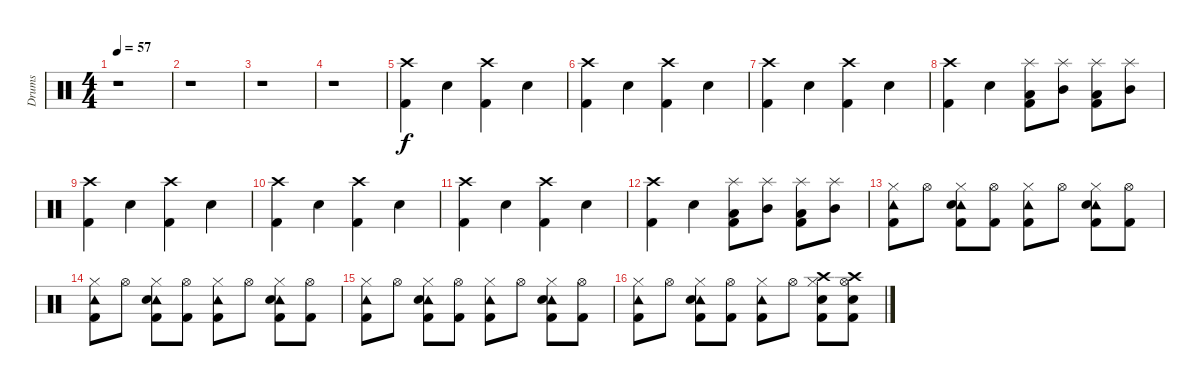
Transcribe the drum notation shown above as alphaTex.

\track ("Drums" "Drums") {instrument percussion}
\staff {score}
\articulation defaults
\ts (4 4)
\tempo 57
\clef neutral
\ks c
r.1{dy f} |
r.1 |
r.1 |
r.1 |
("Crash high (hit)" "Kick (hit) 2").4 "Snare (hit) 2".4 ("Crash high (hit)" "Kick (hit) 2").4 "Snare (hit) 2".4 |
("Crash high (hit)" "Kick (hit) 2").4 "Snare (hit) 2".4 ("Crash high (hit)" "Kick (hit) 2").4 "Snare (hit) 2".4 |
("Crash high (hit)" "Kick (hit) 2").4 "Snare (hit) 2".4 ("Crash high (hit)" "Kick (hit) 2").4 "Snare (hit) 2".4 |
("Crash high (hit)" "Kick (hit) 2").4 "Snare (hit) 2".4 ("Low Tom (hit)" "Splash (hit)" "Kick (hit) 2").8 ("Mid Tom (hit)" "Splash (hit)").8 ("Low Tom (hit)" "Splash (hit)" "Kick (hit) 2").8 ("Mid Tom (hit)" "Splash (hit)").8 |
("Crash high (hit)" "Kick (hit) 2").4 "Snare (hit) 2".4 ("Crash high (hit)" "Kick (hit) 2").4 "Snare (hit) 2".4 |
("Crash high (hit)" "Kick (hit) 2").4 "Snare (hit) 2".4 ("Crash high (hit)" "Kick (hit) 2").4 "Snare (hit) 2".4 |
("Crash high (hit)" "Kick (hit) 2").4 "Snare (hit) 2".4 ("Crash high (hit)" "Kick (hit) 2").4 "Snare (hit) 2".4 |
("Crash high (hit)" "Kick (hit) 2").4 "Snare (hit) 2".4 ("Low Tom (hit)" "Splash (hit)" "Kick (hit) 2").8 ("Mid Tom (hit)" "Splash (hit)").8 ("Low Tom (hit)" "Splash (hit)" "Kick (hit) 2").8 ("Mid Tom (hit)" "Splash (hit)").8 |
("Tambourine (hit)" "Hi-Hat (closed)" "Kick (hit) 2").8 "Hi-Hat (open)".8 ("Tambourine (hit)" "Electric Snare (hit)" "Hi-Hat (closed)" "Kick (hit) 2").8 ("Hi-Hat (open)" "Kick (hit) 2").8 ("Tambourine (hit)" "Hi-Hat (closed)" "Kick (hit) 2").8 "Hi-Hat (open)".8 ("Tambourine (hit)" "Electric Snare (hit)" "Hi-Hat (closed)" "Kick (hit) 2").8 ("Hi-Hat (open)" "Kick (hit) 2").8 |
("Hi-Hat (closed)" "Tambourine (hit)" "Kick (hit) 2").8 "Hi-Hat (open)".8 ("Tambourine (hit)" "Electric Snare (hit)" "Hi-Hat (closed)" "Kick (hit) 2").8 ("Hi-Hat (open)" "Kick (hit) 2").8 ("Tambourine (hit)" "Hi-Hat (closed)" "Kick (hit) 2").8 "Hi-Hat (open)".8 ("Tambourine (hit)" "Electric Snare (hit)" "Hi-Hat (closed)" "Kick (hit) 2").8 ("Hi-Hat (open)" "Kick (hit) 2").8 |
("Hi-Hat (closed)" "Tambourine (hit)" "Kick (hit) 2").8 "Hi-Hat (open)".8 ("Tambourine (hit)" "Electric Snare (hit)" "Hi-Hat (closed)" "Kick (hit) 2").8 ("Hi-Hat (open)" "Kick (hit) 2").8 ("Tambourine (hit)" "Hi-Hat (closed)" "Kick (hit) 2").8 "Hi-Hat (open)".8 ("Tambourine (hit)" "Electric Snare (hit)" "Hi-Hat (closed)" "Kick (hit) 2").8 ("Hi-Hat (open)" "Kick (hit) 2").8 |
("Tambourine (hit)" "Hi-Hat (closed)" "Kick (hit) 2").8 "Hi-Hat (open)".8 ("Tambourine (hit)" "Electric Snare (hit)" "Hi-Hat (closed)" "Kick (hit) 2").8 ("Hi-Hat (open)" "Kick (hit) 2").8 ("Tambourine (hit)" "Hi-Hat (closed)" "Kick (hit) 2").8 "Hi-Hat (open)".8 ("Crash high (hit)" "Electric Snare (hit)" "Hi-Hat (closed)" "Kick (hit) 2").8 ("Electric Snare (hit)" "Crash high (hit)" "Hi-Hat (open)" "Kick (hit) 2").8
